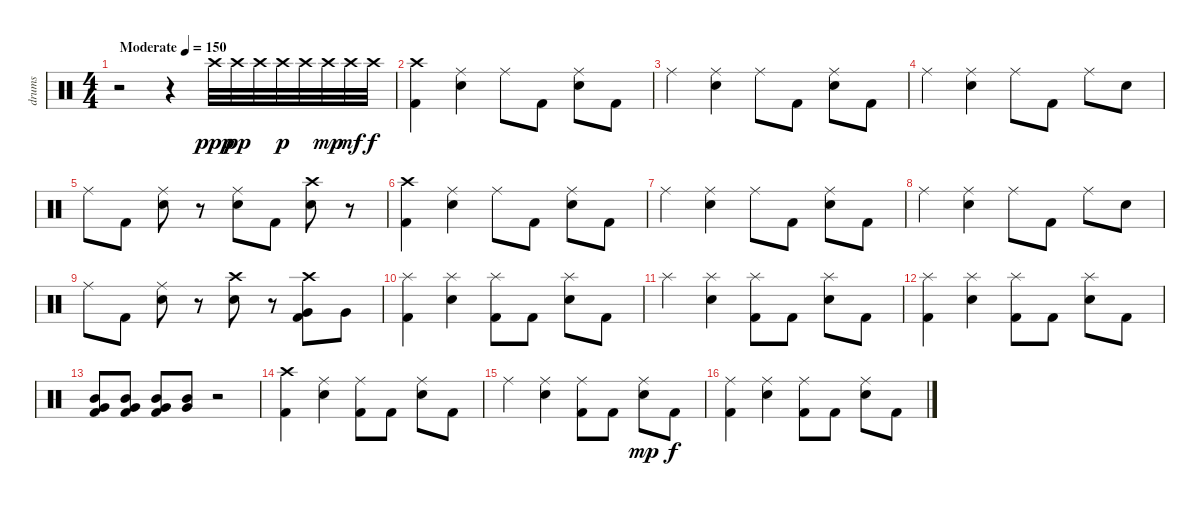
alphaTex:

\track ("drums" "drums") {instrument percussion}
\staff {score}
\articulation defaults
\ts (4 4)
\tempo (150 "Moderate")
\clef neutral
\ks c
r.2{dy ppp} r.4 "Crash high (hit)".32 "Crash high (hit)".32{dy pp} "Crash high (hit)".32 "Crash high (hit)".32{dy p} "Crash high (hit)".32 "Crash high (hit)".32{dy mp} "Crash high (hit)".32{dy mf} "Crash high (hit)".32{dy f} |
("Crash high (hit)" "Kick (hit) 2").4 ("Ride (middle)" "Snare (hit) 2").4 "Ride (middle)".8 "Kick (hit) 2".8 ("Ride (middle)" "Snare (hit) 2").8 "Kick (hit) 2".8 |
"Ride (middle)".4 ("Ride (middle)" "Snare (hit) 2").4 "Ride (middle)".8 "Kick (hit) 2".8 ("Ride (middle)" "Snare (hit) 2").8 "Kick (hit) 2".8 |
"Ride (middle)".4 ("Ride (middle)" "Snare (hit) 2").4 "Ride (middle)".8 "Kick (hit) 2".8 "Ride (middle)".8 "Snare (hit) 2".8 |
"Ride (middle)".8 "Kick (hit) 2".8 ("Ride (middle)" "Snare (hit) 2").8 r.8 ("Ride (middle)" "Snare (hit) 2").8 "Kick (hit) 2".8 ("Crash high (hit)" "Snare (hit) 2").8 r.8 |
("Crash high (hit)" "Kick (hit) 2").4 ("Ride (middle)" "Snare (hit) 2").4 "Ride (middle)".8 "Kick (hit) 2".8 ("Ride (middle)" "Snare (hit) 2").8 "Kick (hit) 2".8 |
"Ride (middle)".4 ("Ride (middle)" "Snare (hit) 2").4 "Ride (middle)".8 "Kick (hit) 2".8 ("Ride (middle)" "Snare (hit) 2").8 "Kick (hit) 2".8 |
"Ride (middle)".4 ("Ride (middle)" "Snare (hit) 2").4 "Ride (middle)".8 "Kick (hit) 2".8 "Ride (middle)".8 "Snare (hit) 2".8 |
"Ride (middle)".8 "Kick (hit) 2".8 ("Ride (middle)" "Snare (hit) 2").8 r.8 ("Crash high (hit)" "Snare (hit) 2").8 r.8 ("Crash high (hit)" "Very Low Tom (hit)" "Kick (hit) 2").8 "Very Low Tom (hit)".8 |
("Splash (hit)" "Kick (hit) 2").4 ("Splash (hit)" "Snare (hit) 2").4 ("Splash (hit)" "Kick (hit) 2").8 "Kick (hit) 2".8 ("Splash (hit)" "Snare (hit) 2").8 "Kick (hit) 2".8 |
"Splash (hit)".4 ("Splash (hit)" "Snare (hit) 2").4 ("Splash (hit)" "Kick (hit) 2").8 "Kick (hit) 2".8 ("Splash (hit)" "Snare (hit) 2").8 "Kick (hit) 2".8 |
("Splash (hit)" "Kick (hit) 2").4 ("Splash (hit)" "Snare (hit) 2").4 ("Splash (hit)" "Kick (hit) 2").8 "Kick (hit) 2".8 ("Splash (hit)" "Snare (hit) 2").8 "Kick (hit) 2".8 |
("Mid Tom (hit)" "Very Low Tom (hit)" "Kick (hit) 2").8 ("Mid Tom (hit)" "Very Low Tom (hit)" "Kick (hit) 2").8 ("Mid Tom (hit)" "Very Low Tom (hit)" "Kick (hit) 2").8 ("Mid Tom (hit)" "Very Low Tom (hit)").8 r.2 |
("Crash high (hit)" "Kick (hit) 2").4 ("Ride (middle)" "Snare (hit) 2").4 ("Ride (middle)" "Kick (hit) 2").8 "Kick (hit) 2".8 ("Ride (middle)" "Snare (hit) 2").8 "Kick (hit) 2".8 |
"Ride (middle)".4 ("Ride (middle)" "Snare (hit) 2").4 ("Ride (middle)" "Kick (hit) 2").8 "Kick (hit) 2".8 ("Ride (middle)" "Snare (hit) 2").8{dy mp} "Kick (hit) 2".8{dy f} |
("Ride (middle)" "Kick (hit) 2").4 ("Ride (middle)" "Snare (hit) 2").4 ("Ride (middle)" "Kick (hit) 2").8 "Kick (hit) 2".8 ("Ride (middle)" "Snare (hit) 2").8 "Kick (hit) 2".8
